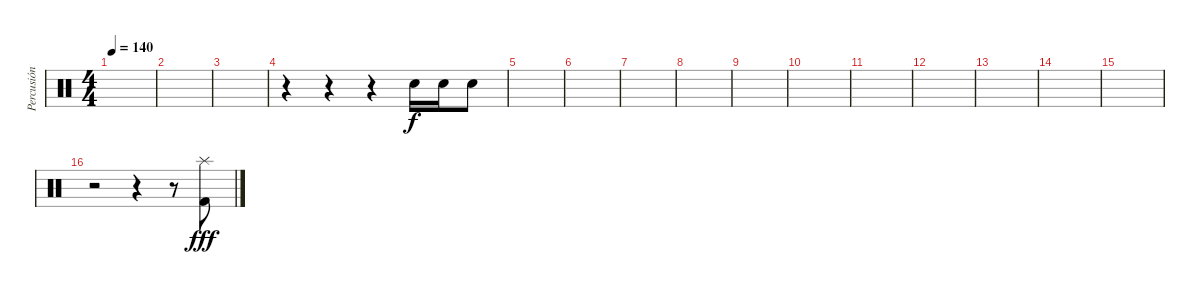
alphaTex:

\track ("Percusión Fredy Caldas" "Percusión ") {instrument percussion}
\staff {score}
\articulation defaults
\ts (4 4)
\tempo 140
\clef neutral
\ks c
|
|
|
r.4 r.4 r.4 "Snare (hit) 2".16 "Snare (hit) 2".16 "Snare (hit) 2".8 |
|
|
|
|
|
|
|
|
|
|
|
r.2 r.4 r.8 ("Kick (hit) 2" "Splash (hit)").8{dy fff}
